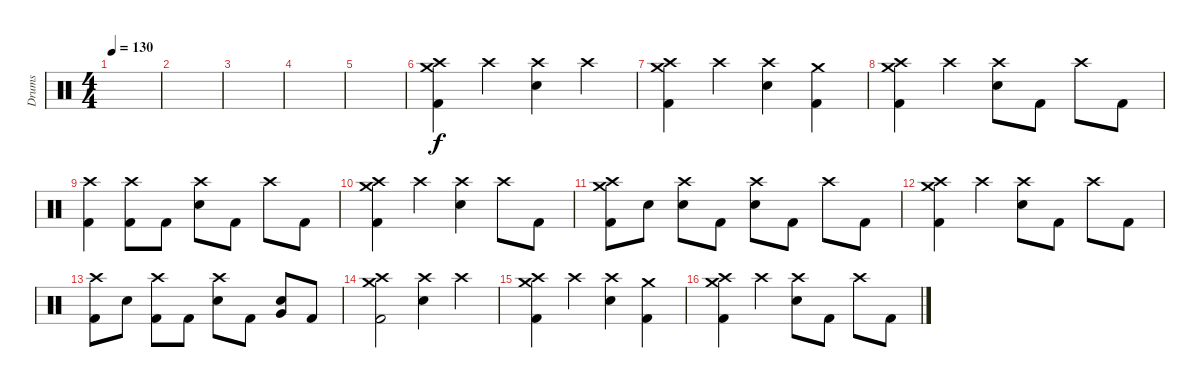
\track ("Drums" "Drums") {instrument percussion}
\staff {score}
\articulation defaults
\ts (4 4)
\tempo 130
\clef neutral
\ks c
|
|
|
|
|
("Crash high (hit)" "Crash medium (hit)" "Kick (hit) 2").4{dy f} "Crash high (hit)".4 ("Crash high (hit)" "Electric Snare (hit)").4 "Crash high (hit)".4 |
("Crash high (hit)" "Crash medium (hit)" "Kick (hit) 2").4 "Crash high (hit)".4 ("Crash high (hit)" "Electric Snare (hit)").4 ("Crash medium (hit)" "Kick (hit) 2").4 |
("Crash high (hit)" "Crash medium (hit)" "Kick (hit) 2").4 "Crash high (hit)".4 ("Crash high (hit)" "Electric Snare (hit)").8 "Kick (hit) 2".8 "Crash high (hit)".8 "Kick (hit) 2".8 |
("Crash high (hit)" "Kick (hit) 2").4 ("Crash high (hit)" "Kick (hit) 2").8 "Kick (hit) 2".8 ("Crash high (hit)" "Electric Snare (hit)").8 "Kick (hit) 2".8 "Crash high (hit)".8 "Kick (hit) 2".8 |
("Crash high (hit)" "Crash medium (hit)" "Kick (hit) 2").4 "Crash high (hit)".4 ("Crash high (hit)" "Electric Snare (hit)").4 "Crash high (hit)".8 "Kick (hit) 2".8 |
("Crash high (hit)" "Crash medium (hit)" "Kick (hit) 2").8 "Electric Snare (hit)".8 ("Crash high (hit)" "Electric Snare (hit)").8 "Kick (hit) 2".8 ("Crash high (hit)" "Electric Snare (hit)").8 "Kick (hit) 2".8 "Crash high (hit)".8 "Kick (hit) 2".8 |
("Crash high (hit)" "Crash medium (hit)" "Kick (hit) 2").4 "Crash high (hit)".4 ("Crash high (hit)" "Electric Snare (hit)").8 "Kick (hit) 2".8 "Crash high (hit)".8 "Kick (hit) 2".8 |
("Crash high (hit)" "Kick (hit) 2").8 "Electric Snare (hit)".8 ("Crash high (hit)" "Kick (hit) 2").8 "Kick (hit) 2".8 ("Crash high (hit)" "Electric Snare (hit)").8 "Kick (hit) 2".8 ("Very Low Tom (hit)" "Electric Snare (hit)").8 "Kick (hit) 2".8 |
("Crash high (hit)" "Crash medium (hit)" "Kick (hit) 2").2 ("Crash high (hit)" "Electric Snare (hit)").4 "Crash high (hit)".4 |
("Crash high (hit)" "Crash medium (hit)" "Kick (hit) 2").4 "Crash high (hit)".4 ("Crash high (hit)" "Electric Snare (hit)").4 ("Crash medium (hit)" "Kick (hit) 2").4 |
("Crash high (hit)" "Crash medium (hit)" "Kick (hit) 2").4 "Crash high (hit)".4 ("Crash high (hit)" "Electric Snare (hit)").8 "Kick (hit) 2".8 "Crash high (hit)".8 "Kick (hit) 2".8
